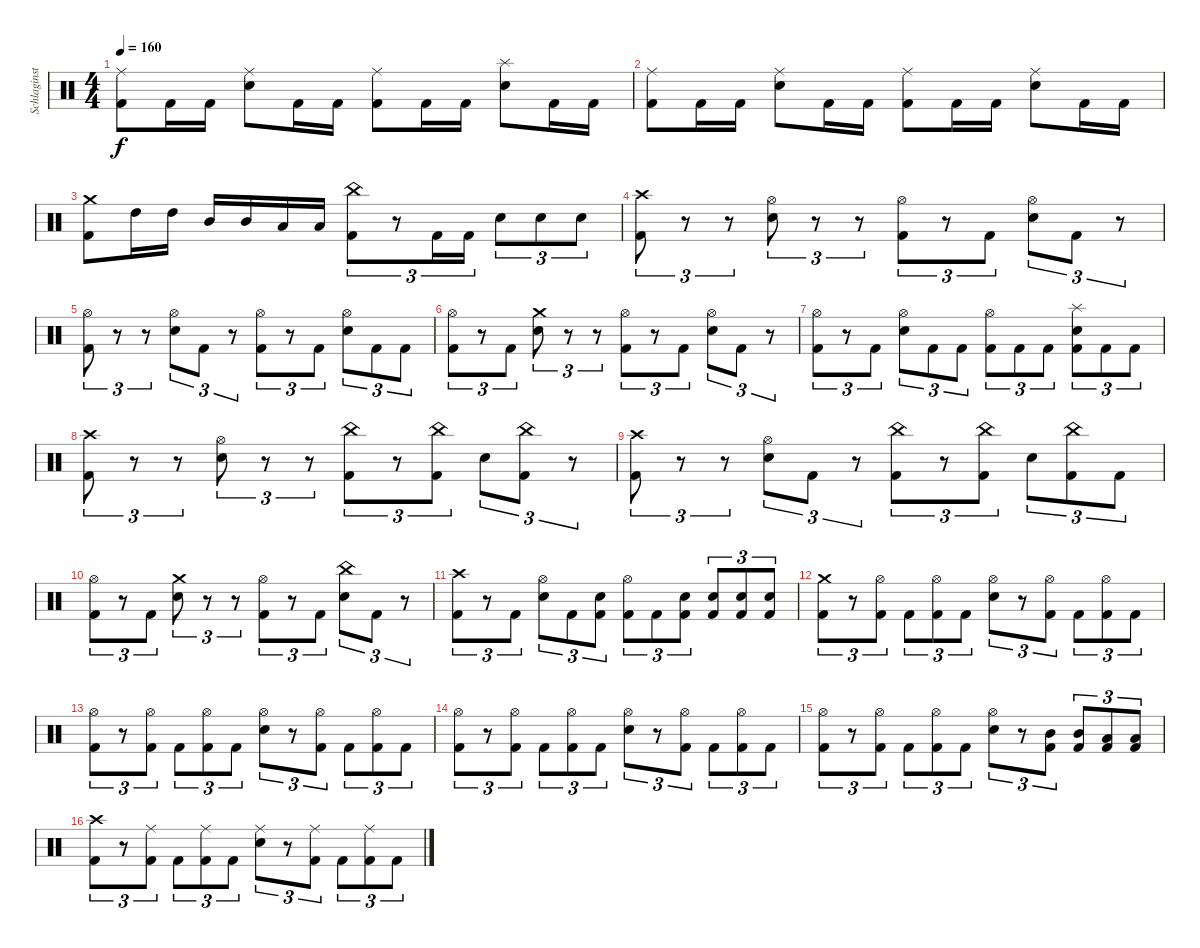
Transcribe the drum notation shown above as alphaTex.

\track ("Schlaginstrumente - Auswahl" "Schlaginst") {instrument percussion}
\staff {score}
\articulation defaults
\ts (4 4)
\tempo 160
\clef neutral
\ks c
("Ride (middle)" "Kick (hit) 2").8{dy f} "Kick (hit) 2".16 "Kick (hit) 2".16 ("Ride (middle)" "Snare (hit) 2").8 "Kick (hit) 2".16 "Kick (hit) 2".16 ("Ride (middle)" "Kick (hit) 2").8 "Kick (hit) 2".16 "Kick (hit) 2".16 ("Splash (hit)" "Snare (hit) 2").8 "Kick (hit) 2".16 "Kick (hit) 2".16 |
("Ride (middle)" "Kick (hit) 2").8 "Kick (hit) 2".16 "Kick (hit) 2".16 ("Ride (middle)" "Snare (hit) 2").8 "Kick (hit) 2".16 "Kick (hit) 2".16 ("Ride (middle)" "Kick (hit) 2").8 "Kick (hit) 2".16 "Kick (hit) 2".16 ("Ride (middle)" "Snare (hit) 2").8 "Kick (hit) 2".16 "Kick (hit) 2".16 |
("Crash medium (hit)" "Kick (hit) 2").8 "High Tom (hit)".16 "High Tom (hit)".16 "Mid Tom (hit)".16 "Mid Tom (hit)".16 "Low Tom (hit)".16 "Low Tom (hit)".16 ("China (hit)" "Kick (hit) 2").8{tu (3 2)} r.8{tu (3 2)} "Kick (hit) 2".16{tu (3 2)} "Kick (hit) 2".16{tu (3 2)} "Snare (hit) 2".8{tu (3 2)} "Snare (hit) 2".8{tu (3 2)} "Snare (hit) 2".8{tu (3 2)} |
("Crash high (hit)" "Kick (hit) 2").8{tu (3 2)} r.8{tu (3 2)} r.8{tu (3 2)} ("Hi-Hat (open)" "Snare (hit) 2").8{tu (3 2)} r.8{tu (3 2)} r.8{tu (3 2)} ("Hi-Hat (open)" "Kick (hit) 2").8{tu (3 2)} r.8{tu (3 2)} "Kick (hit) 2".8{tu (3 2)} ("Hi-Hat (open)" "Snare (hit) 2").8{tu (3 2)} "Kick (hit) 2".8{tu (3 2)} r.8{tu (3 2)} |
("Hi-Hat (open)" "Kick (hit) 2").8{tu (3 2)} r.8{tu (3 2)} r.8{tu (3 2)} ("Hi-Hat (open)" "Snare (hit) 2").8{tu (3 2)} "Kick (hit) 2".8{tu (3 2)} r.8{tu (3 2)} ("Hi-Hat (open)" "Kick (hit) 2").8{tu (3 2)} r.8{tu (3 2)} "Kick (hit) 2".8{tu (3 2)} ("Hi-Hat (open)" "Snare (hit) 2").8{tu (3 2)} "Kick (hit) 2".8{tu (3 2)} "Kick (hit) 2".8{tu (3 2)} |
("Hi-Hat (open)" "Kick (hit) 2").8{tu (3 2)} r.8{tu (3 2)} "Kick (hit) 2".8{tu (3 2)} ("Crash medium (hit)" "Snare (hit) 2").8{tu (3 2)} r.8{tu (3 2)} r.8{tu (3 2)} ("Hi-Hat (open)" "Kick (hit) 2").8{tu (3 2)} r.8{tu (3 2)} "Kick (hit) 2".8{tu (3 2)} ("Hi-Hat (open)" "Snare (hit) 2").8{tu (3 2)} "Kick (hit) 2".8{tu (3 2)} r.8{tu (3 2)} |
("Hi-Hat (open)" "Kick (hit) 2").8{tu (3 2)} r.8{tu (3 2)} "Kick (hit) 2".8{tu (3 2)} ("Hi-Hat (open)" "Snare (hit) 2").8{tu (3 2)} "Kick (hit) 2".8{tu (3 2)} "Kick (hit) 2".8{tu (3 2)} ("Hi-Hat (open)" "Kick (hit) 2").8{tu (3 2)} "Kick (hit) 2".8{tu (3 2)} "Kick (hit) 2".8{tu (3 2)} ("Splash (hit)" "Snare (hit) 2" "Kick (hit) 2").8{tu (3 2)} "Kick (hit) 2".8{tu (3 2)} "Kick (hit) 2".8{tu (3 2)} |
("Crash high (hit)" "Kick (hit) 2").8{tu (3 2)} r.8{tu (3 2)} r.8{tu (3 2)} ("Hi-Hat (open)" "Snare (hit) 2").8{tu (3 2)} r.8{tu (3 2)} r.8{tu (3 2)} ("China (hit)" "Kick (hit) 2").8{tu (3 2)} r.8{tu (3 2)} ("China (hit)" "Kick (hit) 2").8{tu (3 2)} "Snare (hit) 2".8{tu (3 2)} ("China (hit)" "Kick (hit) 2").8{tu (3 2)} r.8{tu (3 2)} |
("Crash high (hit)" "Kick (hit) 2").8{tu (3 2)} r.8{tu (3 2)} r.8{tu (3 2)} ("Hi-Hat (open)" "Snare (hit) 2").8{tu (3 2)} "Kick (hit) 2".8{tu (3 2)} r.8{tu (3 2)} ("China (hit)" "Kick (hit) 2").8{tu (3 2)} r.8{tu (3 2)} ("China (hit)" "Kick (hit) 2").8{tu (3 2)} "Snare (hit) 2".8{tu (3 2)} ("China (hit)" "Kick (hit) 2").8{tu (3 2)} "Kick (hit) 2".8{tu (3 2)} |
("Hi-Hat (open)" "Kick (hit) 2").8{tu (3 2)} r.8{tu (3 2)} "Kick (hit) 2".8{tu (3 2)} ("Crash medium (hit)" "Snare (hit) 2").8{tu (3 2)} r.8{tu (3 2)} r.8{tu (3 2)} ("Hi-Hat (open)" "Kick (hit) 2").8{tu (3 2)} r.8{tu (3 2)} "Kick (hit) 2".8{tu (3 2)} ("China (hit)" "Snare (hit) 2").8{tu (3 2)} "Kick (hit) 2".8{tu (3 2)} r.8{tu (3 2)} |
("Crash high (hit)" "Kick (hit) 2").8{tu (3 2)} r.8{tu (3 2)} "Kick (hit) 2".8{tu (3 2)} ("Hi-Hat (open)" "Snare (hit) 2").8{tu (3 2)} "Kick (hit) 2".8{tu (3 2)} ("Snare (hit) 2" "Kick (hit) 2").8{tu (3 2)} ("Hi-Hat (open)" "Kick (hit) 2").8{tu (3 2)} "Kick (hit) 2".8{tu (3 2)} ("Snare (hit) 2" "Kick (hit) 2").8{tu (3 2)} ("Snare (hit) 2" "Kick (hit) 2").8{tu (3 2)} ("Snare (hit) 2" "Kick (hit) 2").8{tu (3 2)} ("Snare (hit) 2" "Kick (hit) 2").8{tu (3 2)} |
("Crash medium (hit)" "Kick (hit) 2").8{tu (3 2)} r.8{tu (3 2)} ("Hi-Hat (open)" "Kick (hit) 2").8{tu (3 2)} "Kick (hit) 2".8{tu (3 2)} ("Hi-Hat (open)" "Kick (hit) 2").8{tu (3 2)} "Kick (hit) 2".8{tu (3 2)} ("Hi-Hat (open)" "Snare (hit) 2").8{tu (3 2)} r.8{tu (3 2)} ("Hi-Hat (open)" "Kick (hit) 2").8{tu (3 2)} "Kick (hit) 2".8{tu (3 2)} ("Hi-Hat (open)" "Kick (hit) 2").8{tu (3 2)} "Kick (hit) 2".8{tu (3 2)} |
("Hi-Hat (open)" "Kick (hit) 2").8{tu (3 2)} r.8{tu (3 2)} ("Hi-Hat (open)" "Kick (hit) 2").8{tu (3 2)} "Kick (hit) 2".8{tu (3 2)} ("Hi-Hat (open)" "Kick (hit) 2").8{tu (3 2)} "Kick (hit) 2".8{tu (3 2)} ("Hi-Hat (open)" "Snare (hit) 2").8{tu (3 2)} r.8{tu (3 2)} ("Hi-Hat (open)" "Kick (hit) 2").8{tu (3 2)} "Kick (hit) 2".8{tu (3 2)} ("Hi-Hat (open)" "Kick (hit) 2").8{tu (3 2)} "Kick (hit) 2".8{tu (3 2)} |
("Hi-Hat (open)" "Kick (hit) 2").8{tu (3 2)} r.8{tu (3 2)} ("Hi-Hat (open)" "Kick (hit) 2").8{tu (3 2)} "Kick (hit) 2".8{tu (3 2)} ("Hi-Hat (open)" "Kick (hit) 2").8{tu (3 2)} "Kick (hit) 2".8{tu (3 2)} ("Hi-Hat (open)" "Snare (hit) 2").8{tu (3 2)} r.8{tu (3 2)} ("Hi-Hat (open)" "Kick (hit) 2").8{tu (3 2)} "Kick (hit) 2".8{tu (3 2)} ("Hi-Hat (open)" "Kick (hit) 2").8{tu (3 2)} "Kick (hit) 2".8{tu (3 2)} |
("Hi-Hat (open)" "Kick (hit) 2").8{tu (3 2)} r.8{tu (3 2)} ("Hi-Hat (open)" "Kick (hit) 2").8{tu (3 2)} "Kick (hit) 2".8{tu (3 2)} ("Hi-Hat (open)" "Kick (hit) 2").8{tu (3 2)} "Kick (hit) 2".8{tu (3 2)} ("Hi-Hat (open)" "Snare (hit) 2").8{tu (3 2)} r.8{tu (3 2)} ("Mid Tom (hit)" "Kick (hit) 2").8{tu (3 2)} ("Mid Tom (hit)" "Kick (hit) 2").8{tu (3 2)} ("Low Tom (hit)" "Kick (hit) 2").8{tu (3 2)} ("Low Tom (hit)" "Kick (hit) 2").8{tu (3 2)} |
("Crash high (hit)" "Kick (hit) 2").8{tu (3 2)} r.8{tu (3 2)} ("Ride (middle)" "Kick (hit) 2").8{tu (3 2)} "Kick (hit) 2".8{tu (3 2)} ("Ride (middle)" "Kick (hit) 2").8{tu (3 2)} "Kick (hit) 2".8{tu (3 2)} ("Ride (middle)" "Snare (hit) 2").8{tu (3 2)} r.8{tu (3 2)} ("Ride (middle)" "Kick (hit) 2").8{tu (3 2)} "Kick (hit) 2".8{tu (3 2)} ("Ride (middle)" "Kick (hit) 2").8{tu (3 2)} "Kick (hit) 2".8{tu (3 2)}
